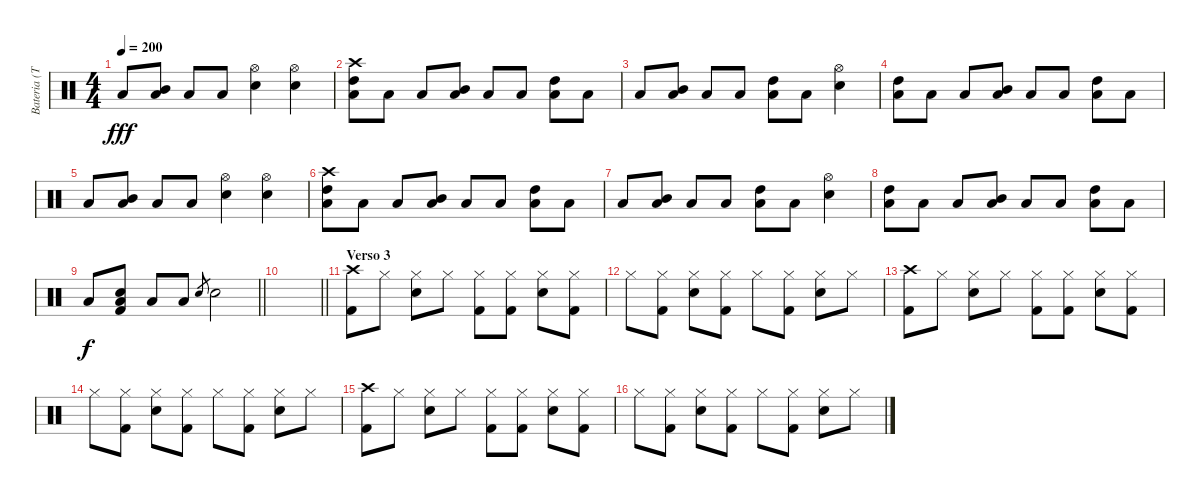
\track ("Bateria (Tré)" "Bateria (T") {instrument percussion}
\staff {score}
\articulation defaults
\ts (4 4)
\tempo 200
\clef neutral
\ks c "Low Floor Tom (hit)".8{dy fff}
("Low Floor Tom (hit)" "Mid Tom (hit)").8 "Low Floor Tom (hit)".8 "Low Floor Tom (hit)".8 ("Electric Snare (hit)" "Hi-Hat (open)").4 ("Electric Snare (hit)" "Hi-Hat (open)").4 |
("Low Floor Tom (hit)" "High Tom (hit)" "Crash high (hit)").8 "Low Floor Tom (hit)".8 "Low Floor Tom (hit)".8 ("Low Floor Tom (hit)" "Mid Tom (hit)").8 "Low Floor Tom (hit)".8 "Low Floor Tom (hit)".8 ("Low Floor Tom (hit)" "High Tom (hit)").8 "Low Floor Tom (hit)".8 |
"Low Floor Tom (hit)".8 ("Low Floor Tom (hit)" "Mid Tom (hit)").8 "Low Floor Tom (hit)".8 "Low Floor Tom (hit)".8 ("Low Floor Tom (hit)" "High Tom (hit)").8 "Low Floor Tom (hit)".8 ("Electric Snare (hit)" "Hi-Hat (open)").4 |
("Low Floor Tom (hit)" "High Tom (hit)").8 "Low Floor Tom (hit)".8 "Low Floor Tom (hit)".8 ("Low Floor Tom (hit)" "Mid Tom (hit)").8 "Low Floor Tom (hit)".8 "Low Floor Tom (hit)".8 ("Low Floor Tom (hit)" "High Tom (hit)").8 "Low Floor Tom (hit)".8 |
"Low Floor Tom (hit)".8 ("Low Floor Tom (hit)" "Mid Tom (hit)").8 "Low Floor Tom (hit)".8 "Low Floor Tom (hit)".8 ("Electric Snare (hit)" "Hi-Hat (open)").4 ("Electric Snare (hit)" "Hi-Hat (open)").4 |
("Low Floor Tom (hit)" "High Tom (hit)" "Crash high (hit)").8 "Low Floor Tom (hit)".8 "Low Floor Tom (hit)".8 ("Low Floor Tom (hit)" "Mid Tom (hit)").8 "Low Floor Tom (hit)".8 "Low Floor Tom (hit)".8 ("Low Floor Tom (hit)" "High Tom (hit)").8 "Low Floor Tom (hit)".8 |
"Low Floor Tom (hit)".8 ("Low Floor Tom (hit)" "Mid Tom (hit)").8 "Low Floor Tom (hit)".8 "Low Floor Tom (hit)".8 ("Low Floor Tom (hit)" "High Tom (hit)").8 "Low Floor Tom (hit)".8 ("Electric Snare (hit)" "Hi-Hat (open)").4 |
("Low Floor Tom (hit)" "High Tom (hit)").8 "Low Floor Tom (hit)".8 "Low Floor Tom (hit)".8 ("Low Floor Tom (hit)" "Mid Tom (hit)").8 "Low Floor Tom (hit)".8 "Low Floor Tom (hit)".8 ("Low Floor Tom (hit)" "High Tom (hit)").8 "Low Floor Tom (hit)".8 |
\barLineRight lightlight "Low Floor Tom (hit)".8{dy f}
("Kick (hit) 2" "Low Floor Tom (hit)" "Electric Snare (hit)").8 "Low Floor Tom (hit)".8 "Low Floor Tom (hit)".8 "Electric Snare (hit)".8{gr} "Electric Snare (hit)".2 |
\barLineRight lightlight
|
\section ("" "Verso 3")
("Crash high (hit)" "Kick (hit) 2").8 "Hi-Hat (closed)".8 ("Hi-Hat (closed)" "Electric Snare (hit)").8 "Hi-Hat (closed)".8 ("Hi-Hat (closed)" "Kick (hit) 2").8 ("Hi-Hat (closed)" "Kick (hit) 2").8 ("Hi-Hat (closed)" "Electric Snare (hit)").8 ("Hi-Hat (closed)" "Kick (hit) 2").8 |
"Hi-Hat (closed)".8 ("Hi-Hat (closed)" "Kick (hit) 2").8 ("Hi-Hat (closed)" "Electric Snare (hit)").8 ("Hi-Hat (closed)" "Kick (hit) 2").8 "Hi-Hat (closed)".8 ("Hi-Hat (closed)" "Kick (hit) 2").8 ("Hi-Hat (closed)" "Electric Snare (hit)").8 "Hi-Hat (closed)".8 |
("Crash high (hit)" "Kick (hit) 2").8 "Hi-Hat (closed)".8 ("Hi-Hat (closed)" "Electric Snare (hit)").8 "Hi-Hat (closed)".8 ("Hi-Hat (closed)" "Kick (hit) 2").8 ("Hi-Hat (closed)" "Kick (hit) 2").8 ("Hi-Hat (closed)" "Electric Snare (hit)").8 ("Hi-Hat (closed)" "Kick (hit) 2").8 |
"Hi-Hat (closed)".8 ("Hi-Hat (closed)" "Kick (hit) 2").8 ("Hi-Hat (closed)" "Electric Snare (hit)").8 ("Hi-Hat (closed)" "Kick (hit) 2").8 "Hi-Hat (closed)".8 ("Hi-Hat (closed)" "Kick (hit) 2").8 ("Hi-Hat (closed)" "Electric Snare (hit)").8 "Hi-Hat (closed)".8 |
("Crash high (hit)" "Kick (hit) 2").8 "Hi-Hat (closed)".8 ("Hi-Hat (closed)" "Electric Snare (hit)").8 "Hi-Hat (closed)".8 ("Hi-Hat (closed)" "Kick (hit) 2").8 ("Hi-Hat (closed)" "Kick (hit) 2").8 ("Hi-Hat (closed)" "Electric Snare (hit)").8 ("Hi-Hat (closed)" "Kick (hit) 2").8 |
"Hi-Hat (closed)".8 ("Hi-Hat (closed)" "Kick (hit) 2").8 ("Hi-Hat (closed)" "Electric Snare (hit)").8 ("Hi-Hat (closed)" "Kick (hit) 2").8 "Hi-Hat (closed)".8 ("Hi-Hat (closed)" "Kick (hit) 2").8 ("Hi-Hat (closed)" "Electric Snare (hit)").8 "Hi-Hat (closed)".8
